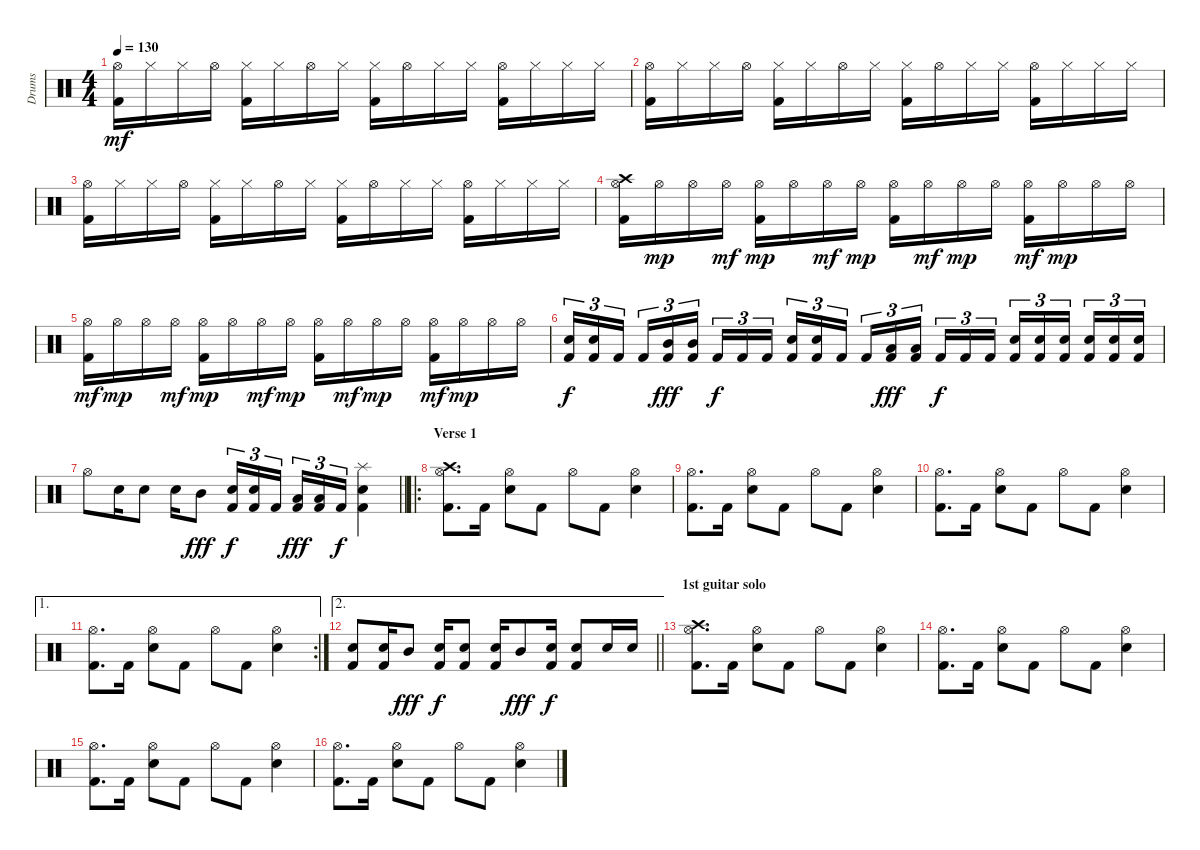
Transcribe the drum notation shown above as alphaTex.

\track ("Drums" "Drums") {instrument percussion}
\staff {score}
\articulation defaults
\ts (4 4)
\tempo 130
\clef neutral
\ks c
("Hi-Hat (open)" "Kick (hit) 2").16{dy mf} "Hi-Hat (closed)".16 "Hi-Hat (closed)".16 "Hi-Hat (open)".16 ("Hi-Hat (closed)" "Kick (hit) 2").16 "Hi-Hat (closed)".16 "Hi-Hat (open)".16 "Hi-Hat (closed)".16 ("Hi-Hat (closed)" "Kick (hit) 2").16 "Hi-Hat (open)".16 "Hi-Hat (closed)".16 "Hi-Hat (closed)".16 ("Hi-Hat (open)" "Kick (hit) 2").16 "Hi-Hat (closed)".16 "Hi-Hat (closed)".16 "Hi-Hat (closed)".16 |
("Hi-Hat (open)" "Kick (hit) 2").16 "Hi-Hat (closed)".16 "Hi-Hat (closed)".16 "Hi-Hat (open)".16 ("Hi-Hat (closed)" "Kick (hit) 2").16 "Hi-Hat (closed)".16 "Hi-Hat (open)".16 "Hi-Hat (closed)".16 ("Hi-Hat (closed)" "Kick (hit) 2").16 "Hi-Hat (open)".16 "Hi-Hat (closed)".16 "Hi-Hat (closed)".16 ("Hi-Hat (open)" "Kick (hit) 2").16 "Hi-Hat (closed)".16 "Hi-Hat (closed)".16 "Hi-Hat (closed)".16 |
("Hi-Hat (open)" "Kick (hit) 2").16 "Hi-Hat (closed)".16 "Hi-Hat (closed)".16 "Hi-Hat (open)".16 ("Hi-Hat (closed)" "Kick (hit) 2").16 "Hi-Hat (closed)".16 "Hi-Hat (open)".16 "Hi-Hat (closed)".16 ("Hi-Hat (closed)" "Kick (hit) 2").16 "Hi-Hat (open)".16 "Hi-Hat (closed)".16 "Hi-Hat (closed)".16 ("Hi-Hat (open)" "Kick (hit) 2").16 "Hi-Hat (closed)".16 "Hi-Hat (closed)".16 "Hi-Hat (closed)".16 |
("Crash high (hit)" "Hi-Hat (open)" "Kick (hit) 2").16 "Hi-Hat (open)".16{dy mp} "Hi-Hat (open)".16 "Hi-Hat (open)".16{dy mf} ("Hi-Hat (open)" "Kick (hit) 2").16{dy mp} "Hi-Hat (open)".16 "Hi-Hat (open)".16{dy mf} "Hi-Hat (open)".16{dy mp} ("Hi-Hat (open)" "Kick (hit) 2").16 "Hi-Hat (open)".16{dy mf} "Hi-Hat (open)".16{dy mp} "Hi-Hat (open)".16 ("Hi-Hat (open)" "Kick (hit) 2").16{dy mf} "Hi-Hat (open)".16{dy mp} "Hi-Hat (open)".16 "Hi-Hat (open)".16 |
("Hi-Hat (open)" "Kick (hit) 2").16{dy mf} "Hi-Hat (open)".16{dy mp} "Hi-Hat (open)".16 "Hi-Hat (open)".16{dy mf} ("Hi-Hat (open)" "Kick (hit) 2").16{dy mp} "Hi-Hat (open)".16 "Hi-Hat (open)".16{dy mf} "Hi-Hat (open)".16{dy mp} ("Hi-Hat (open)" "Kick (hit) 2").16 "Hi-Hat (open)".16{dy mf} "Hi-Hat (open)".16{dy mp} "Hi-Hat (open)".16 ("Hi-Hat (open)" "Kick (hit) 2").16{dy mf} "Hi-Hat (open)".16{dy mp} "Hi-Hat (open)".16 "Hi-Hat (open)".16 |
("Snare (hit) 2" "Kick (hit) 2").16{tu (3 2) dy f} ("Snare (hit) 2" "Kick (hit) 2").16{tu (3 2)} "Kick (hit) 2".16{tu (3 2) beam splitsecondary} "Kick (hit) 2".16{tu (3 2)} ("Mid Tom (hit)" "Kick (hit) 2").16{tu (3 2) dy fff} ("Mid Tom (hit)" "Kick (hit) 2").16{tu (3 2)} "Kick (hit) 2".16{tu (3 2) dy f} "Kick (hit) 2".16{tu (3 2)} "Kick (hit) 2".16{tu (3 2) beam splitsecondary} ("Snare (hit) 2" "Kick (hit) 2").16{tu (3 2)} ("Snare (hit) 2" "Kick (hit) 2").16{tu (3 2)} "Kick (hit) 2".16{tu (3 2)} "Kick (hit) 2".16{tu (3 2)} ("Low Tom (hit)" "Kick (hit) 2").16{tu (3 2) dy fff} ("Low Tom (hit)" "Kick (hit) 2").16{tu (3 2) beam splitsecondary} "Kick (hit) 2".16{tu (3 2) dy f} "Kick (hit) 2".16{tu (3 2)} "Kick (hit) 2".16{tu (3 2)} ("Snare (hit) 2" "Kick (hit) 2").16{tu (3 2)} ("Snare (hit) 2" "Kick (hit) 2").16{tu (3 2)} ("Snare (hit) 2" "Kick (hit) 2").16{tu (3 2) beam splitsecondary} ("Snare (hit) 2" "Kick (hit) 2").16{tu (3 2)} ("Snare (hit) 2" "Kick (hit) 2").16{tu (3 2)} ("Snare (hit) 2" "Kick (hit) 2").16{tu (3 2)} |
\barLineRight lightlight "Hi-Hat (open)".8 "Snare (hit) 2".16 "Snare (hit) 2".8 "Snare (hit) 2".16 "Mid Tom (hit)".8{dy fff}
("Snare (hit) 2" "Kick (hit) 2").16{tu (3 2) dy f} ("Snare (hit) 2" "Kick (hit) 2").16{tu (3 2)} "Kick (hit) 2".16{tu (3 2) beam splitsecondary} ("Low Tom (hit)" "Kick (hit) 2").16{tu (3 2) dy fff} ("Low Tom (hit)" "Kick (hit) 2").16{tu (3 2)} "Kick (hit) 2".16{tu (3 2) dy f} ("Splash (hit)" "Snare (hit) 2" "Kick (hit) 2").4 |
\ro
\section ("" "Verse 1")
("Crash high (hit)" "Hi-Hat (open)" "Kick (hit) 2").8{d} "Kick (hit) 2".16 ("Snare (hit) 2" "Hi-Hat (open)").8 "Kick (hit) 2".8 "Hi-Hat (open)".8 "Kick (hit) 2".8 ("Snare (hit) 2" "Hi-Hat (open)").4 |
("Hi-Hat (open)" "Kick (hit) 2").8{d} "Kick (hit) 2".16 ("Snare (hit) 2" "Hi-Hat (open)").8 "Kick (hit) 2".8 "Hi-Hat (open)".8 "Kick (hit) 2".8 ("Snare (hit) 2" "Hi-Hat (open)").4 |
("Hi-Hat (open)" "Kick (hit) 2").8{d} "Kick (hit) 2".16 ("Snare (hit) 2" "Hi-Hat (open)").8 "Kick (hit) 2".8 "Hi-Hat (open)".8 "Kick (hit) 2".8 ("Snare (hit) 2" "Hi-Hat (open)").4 |
\ae 1
\rc 2
("Hi-Hat (open)" "Kick (hit) 2").8{d} "Kick (hit) 2".16 ("Snare (hit) 2" "Hi-Hat (open)").8 "Kick (hit) 2".8 "Hi-Hat (open)".8 "Kick (hit) 2".8 ("Snare (hit) 2" "Hi-Hat (open)").4 |
\ae 2
\barLineRight lightlight
("Snare (hit) 2" "Kick (hit) 2").8 ("Snare (hit) 2" "Kick (hit) 2").16 "Mid Tom (hit)".8{dy fff} ("Snare (hit) 2" "Kick (hit) 2").16{dy f} ("Snare (hit) 2" "Kick (hit) 2").8 ("Snare (hit) 2" "Kick (hit) 2").16 "Mid Tom (hit)".8{dy fff} ("Snare (hit) 2" "Kick (hit) 2").16{dy f} ("Snare (hit) 2" "Kick (hit) 2").8 "Snare (hit) 2".16 "Snare (hit) 2".16 |
\section ("" "1st guitar solo")
("Crash high (hit)" "Hi-Hat (open)" "Kick (hit) 2").8{d} "Kick (hit) 2".16 ("Snare (hit) 2" "Hi-Hat (open)").8 "Kick (hit) 2".8 "Hi-Hat (open)".8 "Kick (hit) 2".8 ("Snare (hit) 2" "Hi-Hat (open)").4 |
("Hi-Hat (open)" "Kick (hit) 2").8{d} "Kick (hit) 2".16 ("Snare (hit) 2" "Hi-Hat (open)").8 "Kick (hit) 2".8 "Hi-Hat (open)".8 "Kick (hit) 2".8 ("Snare (hit) 2" "Hi-Hat (open)").4 |
("Hi-Hat (open)" "Kick (hit) 2").8{d} "Kick (hit) 2".16 ("Snare (hit) 2" "Hi-Hat (open)").8 "Kick (hit) 2".8 "Hi-Hat (open)".8 "Kick (hit) 2".8 ("Snare (hit) 2" "Hi-Hat (open)").4 |
("Hi-Hat (open)" "Kick (hit) 2").8{d} "Kick (hit) 2".16 ("Snare (hit) 2" "Hi-Hat (open)").8 "Kick (hit) 2".8 "Hi-Hat (open)".8 "Kick (hit) 2".8 ("Snare (hit) 2" "Hi-Hat (open)").4
